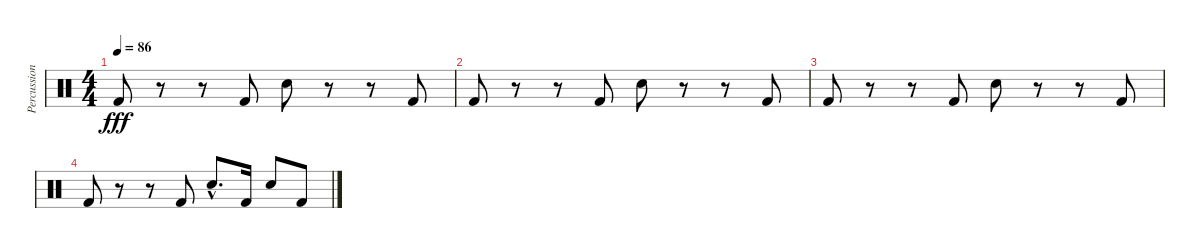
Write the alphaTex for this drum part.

\track ("Percussion" "Percussion") {instrument percussion}
\staff {score}
\articulation defaults
\ts (4 4)
\tempo 86
\clef neutral
\ks c "Kick (hit) 2".8{dy fff}
r.8 r.8 "Kick (hit) 2".8 "Electric Snare (hit)".8 r.8 r.8 "Kick (hit) 2".8 |
"Kick (hit) 2".8 r.8 r.8 "Kick (hit) 2".8 "Electric Snare (hit)".8 r.8 r.8 "Kick (hit) 2".8 |
"Kick (hit) 2".8{volume 0} r.8 r.8 "Kick (hit) 2".8 "Electric Snare (hit)".8 r.8 r.8 "Kick (hit) 2".8 |
"Kick (hit) 2".8 r.8 r.8 "Kick (hit) 2".8 "Electric Snare (hit)"{hac}.8{d} "Kick (hit) 2".16 "Electric Snare (hit)".8 "Kick (hit) 2".8
